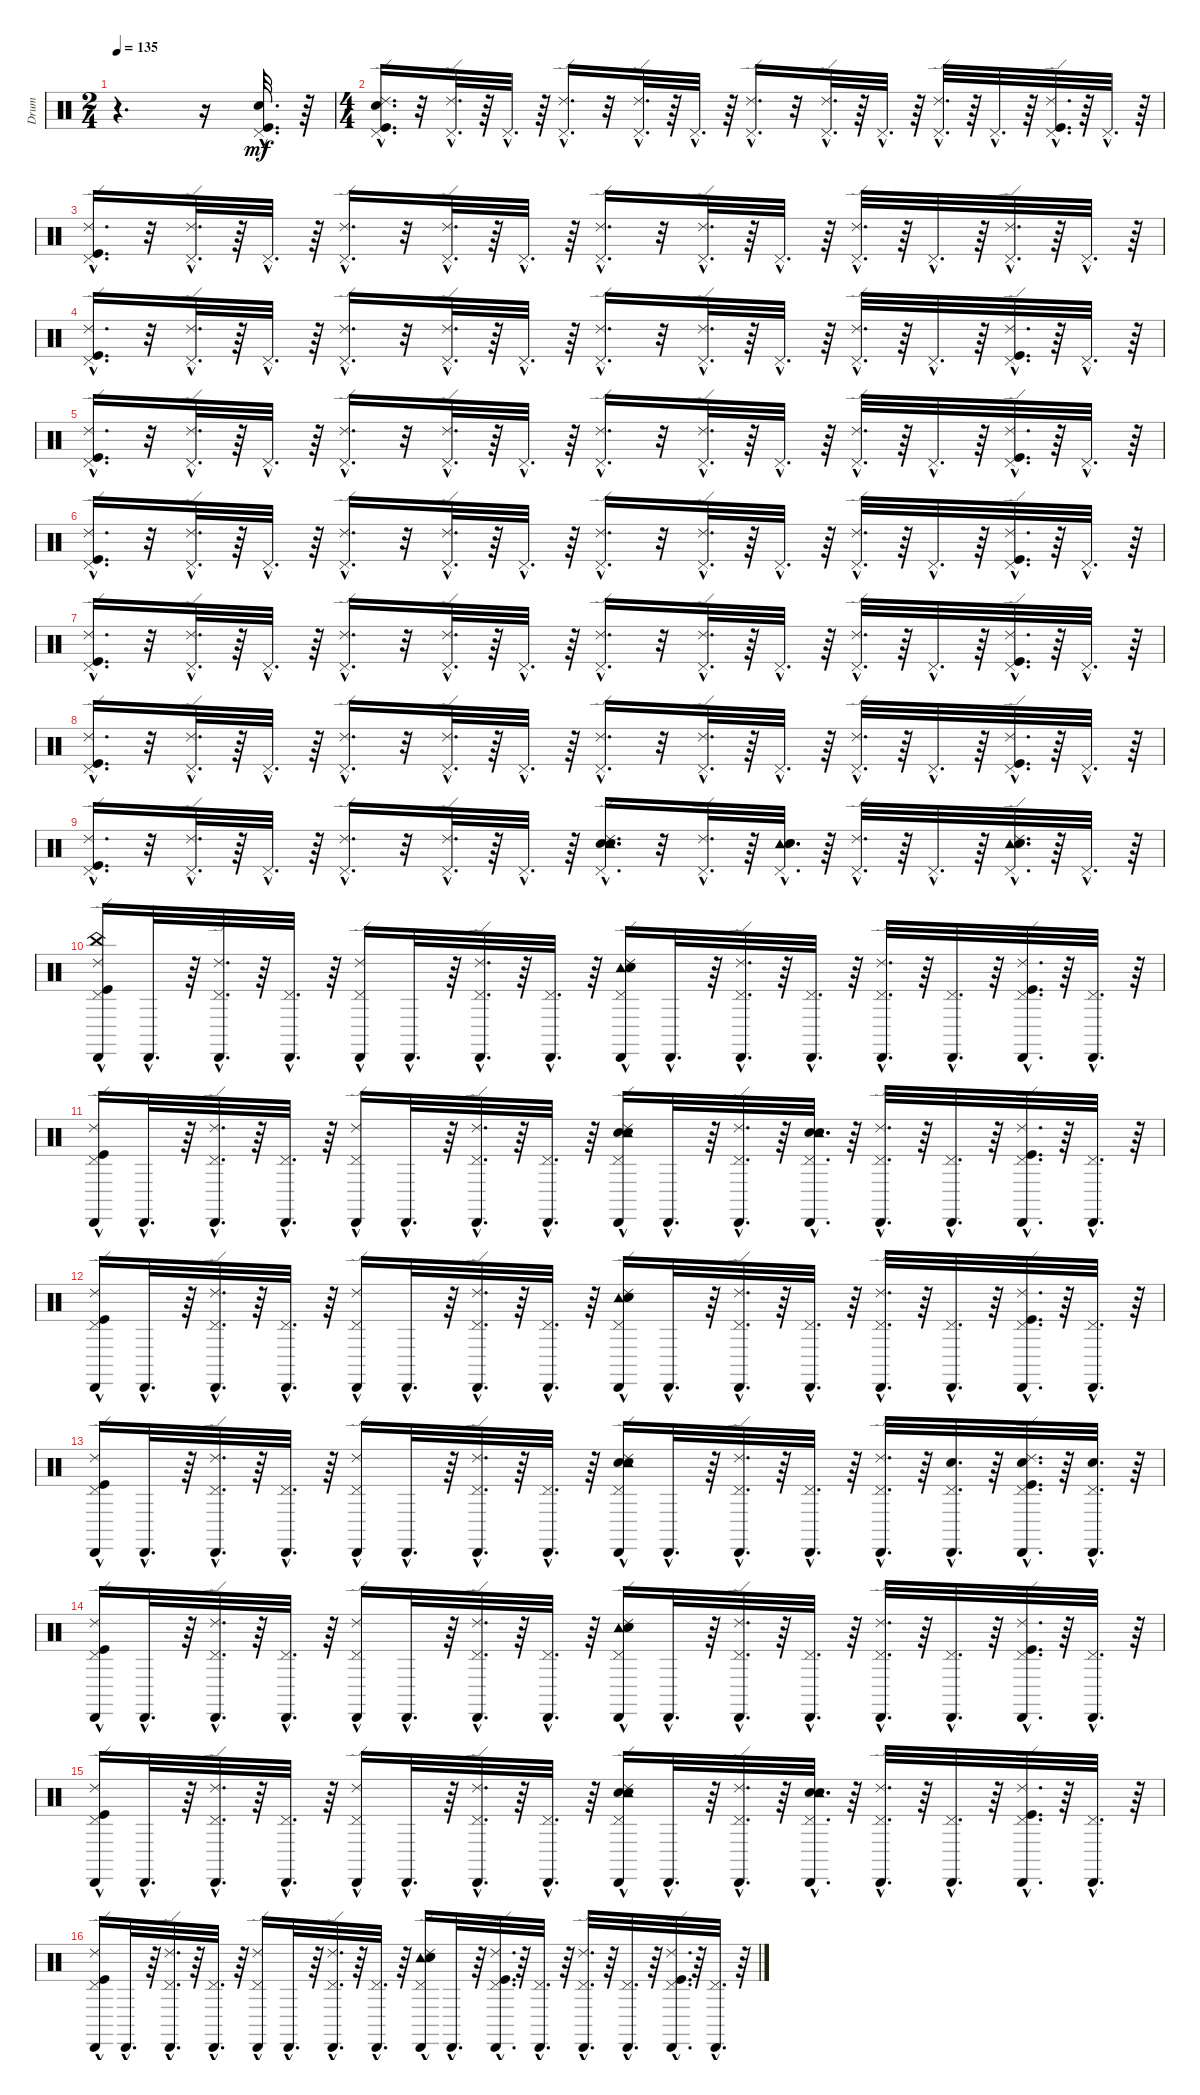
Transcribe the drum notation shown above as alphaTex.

\track ("Drum" "Drum") {instrument percussion}
\staff {score}
\articulation defaults
\ts (2 4)
\tempo 135
\clef neutral
\ks c
r.4{d dy mf} r.16 ("Kick (hit)"{hac} "Pedal Hi-Hat (hit)"{hac} "Snare (hit) 2"{hac}).32{d} r.64 |
\ts (4 4)
("Snare (hit) 2"{hac} "Ride (edge) 2"{hac} "Kick (hit)"{hac} "Pedal Hi-Hat (hit)"{hac}).16{d} r.32 ("Ride (edge) 2"{hac} "Pedal Hi-Hat (hit)"{hac}).32{d} r.64 "Pedal Hi-Hat (hit)"{hac}.32{d} r.64 ("Ride (edge) 2"{hac} "Pedal Hi-Hat (hit)"{hac}).16{d} r.32 ("Ride (edge) 2"{hac} "Pedal Hi-Hat (hit)"{hac}).32{d} r.64 "Pedal Hi-Hat (hit)"{hac}.32{d} r.64 ("Ride (edge) 2"{hac} "Pedal Hi-Hat (hit)"{hac}).16{d} r.32 ("Ride (edge) 2"{hac} "Pedal Hi-Hat (hit)"{hac}).32{d} r.64 "Pedal Hi-Hat (hit)"{hac}.32{d} r.64 ("Ride (edge) 2"{hac} "Pedal Hi-Hat (hit)"{hac}).32{d} r.64 "Pedal Hi-Hat (hit)"{hac}.32{d} r.64 ("Ride (edge) 2"{hac} "Kick (hit)"{hac} "Pedal Hi-Hat (hit)"{hac}).32{d} r.64 "Pedal Hi-Hat (hit)"{hac}.32{d} r.64 |
("Ride (edge) 2"{hac} "Pedal Hi-Hat (hit)"{hac} "Kick (hit)"{hac}).16{d} r.32 ("Ride (edge) 2"{hac} "Pedal Hi-Hat (hit)"{hac}).32{d} r.64 "Pedal Hi-Hat (hit)"{hac}.32{d} r.64 ("Ride (edge) 2"{hac} "Pedal Hi-Hat (hit)"{hac}).16{d} r.32 ("Ride (edge) 2"{hac} "Pedal Hi-Hat (hit)"{hac}).32{d} r.64 "Pedal Hi-Hat (hit)"{hac}.32{d} r.64 ("Ride (edge) 2"{hac} "Pedal Hi-Hat (hit)"{hac}).16{d} r.32 ("Ride (edge) 2"{hac} "Pedal Hi-Hat (hit)"{hac}).32{d} r.64 "Pedal Hi-Hat (hit)"{hac}.32{d} r.64 ("Ride (edge) 2"{hac} "Pedal Hi-Hat (hit)"{hac}).32{d} r.64 "Pedal Hi-Hat (hit)"{hac}.32{d} r.64 ("Ride (edge) 2"{hac} "Pedal Hi-Hat (hit)"{hac}).32{d} r.64 "Pedal Hi-Hat (hit)"{hac}.32{d} r.64 |
("Pedal Hi-Hat (hit)"{hac} "Kick (hit)"{hac} "Ride (edge) 2"{hac}).16{d} r.32 ("Pedal Hi-Hat (hit)"{hac} "Ride (edge) 2"{hac}).32{d} r.64 "Pedal Hi-Hat (hit)"{hac}.32{d} r.64 ("Pedal Hi-Hat (hit)"{hac} "Ride (edge) 2"{hac}).16{d} r.32 ("Pedal Hi-Hat (hit)"{hac} "Ride (edge) 2"{hac}).32{d} r.64 "Pedal Hi-Hat (hit)"{hac}.32{d} r.64 ("Pedal Hi-Hat (hit)"{hac} "Ride (edge) 2"{hac}).16{d} r.32 ("Pedal Hi-Hat (hit)"{hac} "Ride (edge) 2"{hac}).32{d} r.64 "Pedal Hi-Hat (hit)"{hac}.32{d} r.64 ("Pedal Hi-Hat (hit)"{hac} "Ride (edge) 2"{hac}).32{d} r.64 "Pedal Hi-Hat (hit)"{hac}.32{d} r.64 ("Pedal Hi-Hat (hit)"{hac} "Kick (hit)"{hac} "Ride (edge) 2"{hac}).32{d} r.64 "Pedal Hi-Hat (hit)"{hac}.32{d} r.64 |
("Ride (edge) 2"{hac} "Pedal Hi-Hat (hit)"{hac} "Kick (hit)"{hac}).16{d} r.32 ("Ride (edge) 2"{hac} "Pedal Hi-Hat (hit)"{hac}).32{d} r.64 "Pedal Hi-Hat (hit)"{hac}.32{d} r.64 ("Ride (edge) 2"{hac} "Pedal Hi-Hat (hit)"{hac}).16{d} r.32 ("Ride (edge) 2"{hac} "Pedal Hi-Hat (hit)"{hac}).32{d} r.64 "Pedal Hi-Hat (hit)"{hac}.32{d} r.64 ("Ride (edge) 2"{hac} "Pedal Hi-Hat (hit)"{hac}).16{d} r.32 ("Ride (edge) 2"{hac} "Pedal Hi-Hat (hit)"{hac}).32{d} r.64 "Pedal Hi-Hat (hit)"{hac}.32{d} r.64 ("Ride (edge) 2"{hac} "Pedal Hi-Hat (hit)"{hac}).32{d} r.64 "Pedal Hi-Hat (hit)"{hac}.32{d} r.64 ("Ride (edge) 2"{hac} "Kick (hit)"{hac} "Pedal Hi-Hat (hit)"{hac}).32{d} r.64 "Pedal Hi-Hat (hit)"{hac}.32{d} r.64 |
("Ride (edge) 2"{hac} "Kick (hit)"{hac} "Pedal Hi-Hat (hit)"{hac}).16{d} r.32 ("Ride (edge) 2"{hac} "Pedal Hi-Hat (hit)"{hac}).32{d} r.64 "Pedal Hi-Hat (hit)"{hac}.32{d} r.64 ("Ride (edge) 2"{hac} "Pedal Hi-Hat (hit)"{hac}).16{d} r.32 ("Ride (edge) 2"{hac} "Pedal Hi-Hat (hit)"{hac}).32{d} r.64 "Pedal Hi-Hat (hit)"{hac}.32{d} r.64 ("Ride (edge) 2"{hac} "Pedal Hi-Hat (hit)"{hac}).16{d} r.32 ("Ride (edge) 2"{hac} "Pedal Hi-Hat (hit)"{hac}).32{d} r.64 "Pedal Hi-Hat (hit)"{hac}.32{d} r.64 ("Ride (edge) 2"{hac} "Pedal Hi-Hat (hit)"{hac}).32{d} r.64 "Pedal Hi-Hat (hit)"{hac}.32{d} r.64 ("Ride (edge) 2"{hac} "Kick (hit)"{hac} "Pedal Hi-Hat (hit)"{hac}).32{d} r.64 "Pedal Hi-Hat (hit)"{hac}.32{d} r.64 |
("Kick (hit)"{hac} "Pedal Hi-Hat (hit)"{hac} "Ride (edge) 2"{hac}).16{d} r.32 ("Pedal Hi-Hat (hit)"{hac} "Ride (edge) 2"{hac}).32{d} r.64 "Pedal Hi-Hat (hit)"{hac}.32{d} r.64 ("Pedal Hi-Hat (hit)"{hac} "Ride (edge) 2"{hac}).16{d} r.32 ("Pedal Hi-Hat (hit)"{hac} "Ride (edge) 2"{hac}).32{d} r.64 "Pedal Hi-Hat (hit)"{hac}.32{d} r.64 ("Pedal Hi-Hat (hit)"{hac} "Ride (edge) 2"{hac}).16{d} r.32 ("Pedal Hi-Hat (hit)"{hac} "Ride (edge) 2"{hac}).32{d} r.64 "Pedal Hi-Hat (hit)"{hac}.32{d} r.64 ("Pedal Hi-Hat (hit)"{hac} "Ride (edge) 2"{hac}).32{d} r.64 "Pedal Hi-Hat (hit)"{hac}.32{d} r.64 ("Pedal Hi-Hat (hit)"{hac} "Kick (hit)"{hac} "Ride (edge) 2"{hac}).32{d} r.64 "Pedal Hi-Hat (hit)"{hac}.32{d} r.64 |
("Pedal Hi-Hat (hit)"{hac} "Kick (hit)"{hac} "Ride (edge) 2"{hac}).16{d} r.32 ("Pedal Hi-Hat (hit)"{hac} "Ride (edge) 2"{hac}).32{d} r.64 "Pedal Hi-Hat (hit)"{hac}.32{d} r.64 ("Pedal Hi-Hat (hit)"{hac} "Ride (edge) 2"{hac}).16{d} r.32 ("Pedal Hi-Hat (hit)"{hac} "Ride (edge) 2"{hac}).32{d} r.64 "Pedal Hi-Hat (hit)"{hac}.32{d} r.64 ("Pedal Hi-Hat (hit)"{hac} "Ride (edge) 2"{hac}).16{d} r.32 ("Pedal Hi-Hat (hit)"{hac} "Ride (edge) 2"{hac}).32{d} r.64 "Pedal Hi-Hat (hit)"{hac}.32{d} r.64 ("Pedal Hi-Hat (hit)"{hac} "Ride (edge) 2"{hac}).32{d} r.64 "Pedal Hi-Hat (hit)"{hac}.32{d} r.64 ("Pedal Hi-Hat (hit)"{hac} "Kick (hit)"{hac} "Ride (edge) 2"{hac}).32{d} r.64 "Pedal Hi-Hat (hit)"{hac}.32{d} r.64 |
("Ride (edge) 2"{hac} "Kick (hit)"{hac} "Pedal Hi-Hat (hit)"{hac}).16{d} r.32 ("Ride (edge) 2"{hac} "Pedal Hi-Hat (hit)"{hac}).32{d} r.64 "Pedal Hi-Hat (hit)"{hac}.32{d} r.64 ("Ride (edge) 2"{hac} "Pedal Hi-Hat (hit)"{hac}).16{d} r.32 ("Ride (edge) 2"{hac} "Pedal Hi-Hat (hit)"{hac}).32{d} r.64 "Pedal Hi-Hat (hit)"{hac}.32{d} r.64 ("Electric Snare (hit)"{hac} "Tambourine (hit)"{hac} "Ride (edge) 2"{hac} "Snare (hit) 2"{hac} "Pedal Hi-Hat (hit)"{hac}).16{d} r.32 ("Ride (edge) 2"{hac} "Pedal Hi-Hat (hit)"{hac}).32{d} r.64 ("Tambourine (hit)"{hac} "Snare (hit) 2"{hac} "Electric Snare (hit)"{hac} "Pedal Hi-Hat (hit)"{hac}).32{d} r.64 ("Pedal Hi-Hat (hit)"{hac} "Ride (edge) 2"{hac}).32{d} r.64 "Pedal Hi-Hat (hit)"{hac}.32{d} r.64 ("Tambourine (hit)"{hac} "Electric Snare (hit)"{hac} "Snare (hit) 2"{hac} "Ride (edge) 2"{hac} "Pedal Hi-Hat (hit)"{hac}).32{d} r.64 "Pedal Hi-Hat (hit)"{hac}.32{d} r.64 |
("Cabasa (hit)"{hac} "China (hit)"{hac} "Pedal Hi-Hat (hit)"{hac} "Kick (hit)"{hac} "Ride (edge) 2"{hac}).16 "Cabasa (hit)"{hac}.32{d} r.64 ("Cabasa (hit)"{hac} "Pedal Hi-Hat (hit)"{hac} "Ride (edge) 2"{hac}).32{d} r.64 ("Cabasa (hit)"{hac} "Pedal Hi-Hat (hit)"{hac}).32{d} r.64 ("Cabasa (hit)"{hac} "Pedal Hi-Hat (hit)"{hac} "Ride (edge) 2"{hac}).16 "Cabasa (hit)"{hac}.32{d} r.64 ("Cabasa (hit)"{hac} "Pedal Hi-Hat (hit)"{hac} "Ride (edge) 2"{hac}).32{d} r.64 ("Cabasa (hit)"{hac} "Pedal Hi-Hat (hit)"{hac}).32{d} r.64 ("Cabasa (hit)"{hac} "Tambourine (hit)"{hac} "Snare (hit) 2"{hac} "Electric Snare (hit)"{hac} "Pedal Hi-Hat (hit)"{hac} "Ride (edge) 2"{hac}).16 "Cabasa (hit)"{hac}.32{d} r.64 ("Cabasa (hit)"{hac} "Pedal Hi-Hat (hit)"{hac} "Ride (edge) 2"{hac}).32{d} r.64 ("Cabasa (hit)"{hac} "Pedal Hi-Hat (hit)"{hac}).32{d} r.64 ("Cabasa (hit)"{hac} "Pedal Hi-Hat (hit)"{hac} "Ride (edge) 2"{hac}).32{d} r.64 ("Cabasa (hit)"{hac} "Pedal Hi-Hat (hit)"{hac}).32{d} r.64 ("Cabasa (hit)"{hac} "Pedal Hi-Hat (hit)"{hac} "Kick (hit)"{hac} "Ride (edge) 2"{hac}).32{d} r.64 ("Cabasa (hit)"{hac} "Pedal Hi-Hat (hit)"{hac}).32{d} r.64 |
("Cabasa (hit)"{hac} "Pedal Hi-Hat (hit)"{hac} "Kick (hit)"{hac} "Ride (edge) 2"{hac}).16 "Cabasa (hit)"{hac}.32{d} r.64 ("Cabasa (hit)"{hac} "Pedal Hi-Hat (hit)"{hac} "Ride (edge) 2"{hac}).32{d} r.64 ("Cabasa (hit)"{hac} "Pedal Hi-Hat (hit)"{hac}).32{d} r.64 ("Cabasa (hit)"{hac} "Pedal Hi-Hat (hit)"{hac} "Ride (edge) 2"{hac}).16 "Cabasa (hit)"{hac}.32{d} r.64 ("Cabasa (hit)"{hac} "Pedal Hi-Hat (hit)"{hac} "Ride (edge) 2"{hac}).32{d} r.64 ("Cabasa (hit)"{hac} "Pedal Hi-Hat (hit)"{hac}).32{d} r.64 ("Cabasa (hit)"{hac} "Pedal Hi-Hat (hit)"{hac} "Snare (hit) 2"{hac} "Ride (edge) 2"{hac} "Tambourine (hit)"{hac} "Electric Snare (hit)"{hac}).16 "Cabasa (hit)"{hac}.32{d} r.64 ("Cabasa (hit)"{hac} "Pedal Hi-Hat (hit)"{hac} "Ride (edge) 2"{hac}).32{d} r.64 ("Cabasa (hit)"{hac} "Pedal Hi-Hat (hit)"{hac} "Electric Snare (hit)"{hac} "Snare (hit) 2"{hac} "Tambourine (hit)"{hac}).32{d} r.64 ("Cabasa (hit)"{hac} "Ride (edge) 2"{hac} "Pedal Hi-Hat (hit)"{hac}).32{d} r.64 ("Cabasa (hit)"{hac} "Pedal Hi-Hat (hit)"{hac}).32{d} r.64 ("Cabasa (hit)"{hac} "Pedal Hi-Hat (hit)"{hac} "Ride (edge) 2"{hac} "Kick (hit)"{hac}).32{d} r.64 ("Cabasa (hit)"{hac} "Pedal Hi-Hat (hit)"{hac}).32{d} r.64 |
("Cabasa (hit)"{hac} "Ride (edge) 2"{hac} "Kick (hit)"{hac} "Pedal Hi-Hat (hit)"{hac}).16 "Cabasa (hit)"{hac}.32{d} r.64 ("Cabasa (hit)"{hac} "Ride (edge) 2"{hac} "Pedal Hi-Hat (hit)"{hac}).32{d} r.64 ("Cabasa (hit)"{hac} "Pedal Hi-Hat (hit)"{hac}).32{d} r.64 ("Cabasa (hit)"{hac} "Ride (edge) 2"{hac} "Pedal Hi-Hat (hit)"{hac}).16 "Cabasa (hit)"{hac}.32{d} r.64 ("Cabasa (hit)"{hac} "Ride (edge) 2"{hac} "Pedal Hi-Hat (hit)"{hac}).32{d} r.64 ("Cabasa (hit)"{hac} "Pedal Hi-Hat (hit)"{hac}).32{d} r.64 ("Cabasa (hit)"{hac} "Tambourine (hit)"{hac} "Ride (edge) 2"{hac} "Pedal Hi-Hat (hit)"{hac} "Electric Snare (hit)"{hac} "Snare (hit) 2"{hac}).16 "Cabasa (hit)"{hac}.32{d} r.64 ("Cabasa (hit)"{hac} "Ride (edge) 2"{hac} "Pedal Hi-Hat (hit)"{hac}).32{d} r.64 ("Cabasa (hit)"{hac} "Pedal Hi-Hat (hit)"{hac}).32{d} r.64 ("Cabasa (hit)"{hac} "Ride (edge) 2"{hac} "Pedal Hi-Hat (hit)"{hac}).32{d} r.64 ("Cabasa (hit)"{hac} "Pedal Hi-Hat (hit)"{hac}).32{d} r.64 ("Cabasa (hit)"{hac} "Ride (edge) 2"{hac} "Kick (hit)"{hac} "Pedal Hi-Hat (hit)"{hac}).32{d} r.64 ("Cabasa (hit)"{hac} "Pedal Hi-Hat (hit)"{hac}).32{d} r.64 |
("Cabasa (hit)"{hac} "Kick (hit)"{hac} "Ride (edge) 2"{hac} "Pedal Hi-Hat (hit)"{hac}).16 "Cabasa (hit)"{hac}.32{d} r.64 ("Cabasa (hit)"{hac} "Pedal Hi-Hat (hit)"{hac} "Ride (edge) 2"{hac}).32{d} r.64 ("Cabasa (hit)"{hac} "Pedal Hi-Hat (hit)"{hac}).32{d} r.64 ("Cabasa (hit)"{hac} "Pedal Hi-Hat (hit)"{hac} "Ride (edge) 2"{hac}).16 "Cabasa (hit)"{hac}.32{d} r.64 ("Cabasa (hit)"{hac} "Pedal Hi-Hat (hit)"{hac} "Ride (edge) 2"{hac}).32{d} r.64 ("Cabasa (hit)"{hac} "Pedal Hi-Hat (hit)"{hac}).32{d} r.64 ("Cabasa (hit)"{hac} "Pedal Hi-Hat (hit)"{hac} "Electric Snare (hit)"{hac} "Snare (hit) 2"{hac} "Ride (edge) 2"{hac} "Tambourine (hit)"{hac}).16 "Cabasa (hit)"{hac}.32{d} r.64 ("Cabasa (hit)"{hac} "Pedal Hi-Hat (hit)"{hac} "Ride (edge) 2"{hac}).32{d} r.64 ("Cabasa (hit)"{hac} "Pedal Hi-Hat (hit)"{hac}).32{d} r.64 ("Cabasa (hit)"{hac} "Pedal Hi-Hat (hit)"{hac} "Ride (edge) 2"{hac}).32{d} r.64 ("Cabasa (hit)"{hac} "Snare (hit) 2"{hac} "Pedal Hi-Hat (hit)"{hac}).32{d} r.64 ("Cabasa (hit)"{hac} "Snare (hit) 2"{hac} "Pedal Hi-Hat (hit)"{hac} "Kick (hit)"{hac} "Ride (edge) 2"{hac}).32{d} r.64 ("Cabasa (hit)"{hac} "Snare (hit) 2"{hac} "Pedal Hi-Hat (hit)"{hac}).32{d} r.64 |
("Cabasa (hit)"{hac} "Ride (edge) 2"{hac} "Kick (hit)"{hac} "Pedal Hi-Hat (hit)"{hac}).16 "Cabasa (hit)"{hac}.32{d} r.64 ("Cabasa (hit)"{hac} "Ride (edge) 2"{hac} "Pedal Hi-Hat (hit)"{hac}).32{d} r.64 ("Cabasa (hit)"{hac} "Pedal Hi-Hat (hit)"{hac}).32{d} r.64 ("Cabasa (hit)"{hac} "Ride (edge) 2"{hac} "Pedal Hi-Hat (hit)"{hac}).16 "Cabasa (hit)"{hac}.32{d} r.64 ("Cabasa (hit)"{hac} "Ride (edge) 2"{hac} "Pedal Hi-Hat (hit)"{hac}).32{d} r.64 ("Cabasa (hit)"{hac} "Pedal Hi-Hat (hit)"{hac}).32{d} r.64 ("Cabasa (hit)"{hac} "Tambourine (hit)"{hac} "Ride (edge) 2"{hac} "Pedal Hi-Hat (hit)"{hac} "Electric Snare (hit)"{hac} "Snare (hit) 2"{hac}).16 "Cabasa (hit)"{hac}.32{d} r.64 ("Cabasa (hit)"{hac} "Ride (edge) 2"{hac} "Pedal Hi-Hat (hit)"{hac}).32{d} r.64 ("Cabasa (hit)"{hac} "Pedal Hi-Hat (hit)"{hac}).32{d} r.64 ("Cabasa (hit)"{hac} "Ride (edge) 2"{hac} "Pedal Hi-Hat (hit)"{hac}).32{d} r.64 ("Cabasa (hit)"{hac} "Pedal Hi-Hat (hit)"{hac}).32{d} r.64 ("Cabasa (hit)"{hac} "Ride (edge) 2"{hac} "Kick (hit)"{hac} "Pedal Hi-Hat (hit)"{hac}).32{d} r.64 ("Cabasa (hit)"{hac} "Pedal Hi-Hat (hit)"{hac}).32{d} r.64 |
("Cabasa (hit)"{hac} "Kick (hit)"{hac} "Pedal Hi-Hat (hit)"{hac} "Ride (edge) 2"{hac}).16 "Cabasa (hit)"{hac}.32{d} r.64 ("Cabasa (hit)"{hac} "Ride (edge) 2"{hac} "Pedal Hi-Hat (hit)"{hac}).32{d} r.64 ("Cabasa (hit)"{hac} "Pedal Hi-Hat (hit)"{hac}).32{d} r.64 ("Cabasa (hit)"{hac} "Ride (edge) 2"{hac} "Pedal Hi-Hat (hit)"{hac}).16 "Cabasa (hit)"{hac}.32{d} r.64 ("Cabasa (hit)"{hac} "Ride (edge) 2"{hac} "Pedal Hi-Hat (hit)"{hac}).32{d} r.64 ("Cabasa (hit)"{hac} "Pedal Hi-Hat (hit)"{hac}).32{d} r.64 ("Cabasa (hit)"{hac} "Ride (edge) 2"{hac} "Snare (hit) 2"{hac} "Pedal Hi-Hat (hit)"{hac} "Electric Snare (hit)"{hac} "Tambourine (hit)"{hac}).16 "Cabasa (hit)"{hac}.32{d} r.64 ("Cabasa (hit)"{hac} "Ride (edge) 2"{hac} "Pedal Hi-Hat (hit)"{hac}).32{d} r.64 ("Cabasa (hit)"{hac} "Electric Snare (hit)"{hac} "Pedal Hi-Hat (hit)"{hac} "Tambourine (hit)"{hac} "Snare (hit) 2"{hac}).32{d} r.64 ("Cabasa (hit)"{hac} "Ride (edge) 2"{hac} "Pedal Hi-Hat (hit)"{hac}).32{d} r.64 ("Cabasa (hit)"{hac} "Pedal Hi-Hat (hit)"{hac}).32{d} r.64 ("Cabasa (hit)"{hac} "Ride (edge) 2"{hac} "Kick (hit)"{hac} "Pedal Hi-Hat (hit)"{hac}).32{d} r.64 ("Cabasa (hit)"{hac} "Pedal Hi-Hat (hit)"{hac}).32{d} r.64 |
("Cabasa (hit)"{hac} "Ride (edge) 2"{hac} "Kick (hit)"{hac} "Pedal Hi-Hat (hit)"{hac}).16 "Cabasa (hit)"{hac}.32{d} r.64 ("Cabasa (hit)"{hac} "Ride (edge) 2"{hac} "Pedal Hi-Hat (hit)"{hac}).32{d} r.64 ("Cabasa (hit)"{hac} "Pedal Hi-Hat (hit)"{hac}).32{d} r.64 ("Cabasa (hit)"{hac} "Ride (edge) 2"{hac} "Pedal Hi-Hat (hit)"{hac}).16 "Cabasa (hit)"{hac}.32{d} r.64 ("Cabasa (hit)"{hac} "Ride (edge) 2"{hac} "Pedal Hi-Hat (hit)"{hac}).32{d} r.64 ("Cabasa (hit)"{hac} "Pedal Hi-Hat (hit)"{hac}).32{d} r.64 ("Cabasa (hit)"{hac} "Tambourine (hit)"{hac} "Ride (edge) 2"{hac} "Pedal Hi-Hat (hit)"{hac} "Electric Snare (hit)"{hac} "Snare (hit) 2"{hac}).16 "Cabasa (hit)"{hac}.32{d} r.64 ("Cabasa (hit)"{hac} "Kick (hit)"{hac} "Ride (edge) 2"{hac} "Pedal Hi-Hat (hit)"{hac}).32{d} r.64 ("Cabasa (hit)"{hac} "Pedal Hi-Hat (hit)"{hac}).32{d} r.64 ("Cabasa (hit)"{hac} "Ride (edge) 2"{hac} "Pedal Hi-Hat (hit)"{hac}).32{d} r.64 ("Cabasa (hit)"{hac} "Pedal Hi-Hat (hit)"{hac}).32{d} r.64 ("Cabasa (hit)"{hac} "Kick (hit)"{hac} "Ride (edge) 2"{hac} "Pedal Hi-Hat (hit)"{hac}).32{d} r.64 ("Cabasa (hit)"{hac} "Pedal Hi-Hat (hit)"{hac}).32{d} r.64
